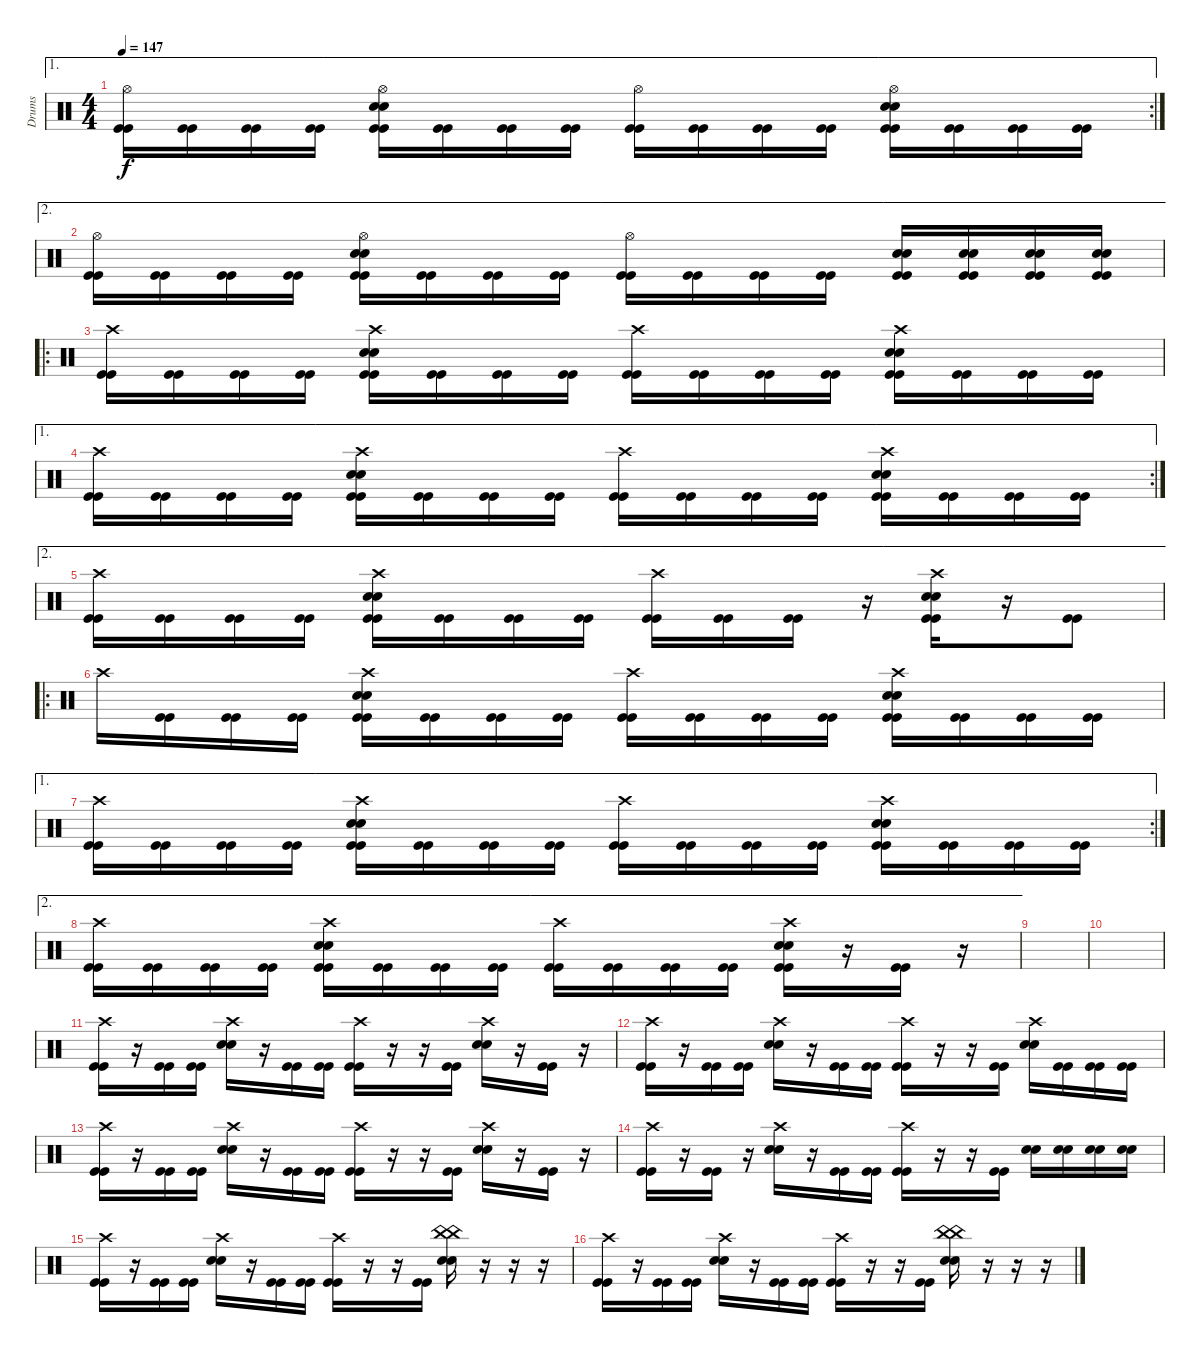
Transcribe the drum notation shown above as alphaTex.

\track ("Drums" "Drums") {instrument percussion}
\staff {score}
\articulation defaults
\ae 1
\rc 2
\ts (4 4)
\tempo 147
\clef neutral
\ks c
("Hi-Hat (open)" "Kick (hit)" "Kick (hit)").16{dy f} ("Kick (hit)" "Kick (hit)").16 ("Kick (hit)" "Kick (hit)").16 ("Kick (hit)" "Kick (hit)").16 ("Hi-Hat (open)" "Snare (hit) 2" "Snare (hit) 2" "Kick (hit)" "Kick (hit)").16 ("Kick (hit)" "Kick (hit)").16 ("Kick (hit)" "Kick (hit)").16 ("Kick (hit)" "Kick (hit)").16 ("Hi-Hat (open)" "Kick (hit)" "Kick (hit)").16 ("Kick (hit)" "Kick (hit)").16 ("Kick (hit)" "Kick (hit)").16 ("Kick (hit)" "Kick (hit)").16 ("Hi-Hat (open)" "Snare (hit) 2" "Snare (hit) 2" "Kick (hit)" "Kick (hit)").16 ("Kick (hit)" "Kick (hit)").16 ("Kick (hit)" "Kick (hit)").16 ("Kick (hit)" "Kick (hit)").16 |
\ae 2
("Hi-Hat (open)" "Kick (hit)" "Kick (hit)").16 ("Kick (hit)" "Kick (hit)").16 ("Kick (hit)" "Kick (hit)").16 ("Kick (hit)" "Kick (hit)").16 ("Hi-Hat (open)" "Snare (hit) 2" "Snare (hit) 2" "Kick (hit)" "Kick (hit)").16 ("Kick (hit)" "Kick (hit)").16 ("Kick (hit)" "Kick (hit)").16 ("Kick (hit)" "Kick (hit)").16 ("Hi-Hat (open)" "Kick (hit)" "Kick (hit)").16 ("Kick (hit)" "Kick (hit)").16 ("Kick (hit)" "Kick (hit)").16 ("Kick (hit)" "Kick (hit)").16 ("Snare (hit) 2" "Snare (hit) 2" "Kick (hit)" "Kick (hit)").16 ("Snare (hit) 2" "Snare (hit) 2" "Kick (hit)" "Kick (hit)").16 ("Snare (hit) 2" "Snare (hit) 2" "Kick (hit)" "Kick (hit)").16 ("Snare (hit) 2" "Snare (hit) 2" "Kick (hit)" "Kick (hit)").16 |
\ro
("Crash high (hit)" "Kick (hit)" "Kick (hit)").16 ("Kick (hit)" "Kick (hit)").16 ("Kick (hit)" "Kick (hit)").16 ("Kick (hit)" "Kick (hit)").16 ("Crash high (hit)" "Snare (hit) 2" "Snare (hit) 2" "Kick (hit)" "Kick (hit)").16 ("Kick (hit)" "Kick (hit)").16 ("Kick (hit)" "Kick (hit)").16 ("Kick (hit)" "Kick (hit)").16 ("Crash high (hit)" "Kick (hit)" "Kick (hit)").16 ("Kick (hit)" "Kick (hit)").16 ("Kick (hit)" "Kick (hit)").16 ("Kick (hit)" "Kick (hit)").16 ("Crash high (hit)" "Snare (hit) 2" "Snare (hit) 2" "Kick (hit)" "Kick (hit)").16 ("Kick (hit)" "Kick (hit)").16 ("Kick (hit)" "Kick (hit)").16 ("Kick (hit)" "Kick (hit)").16 |
\ae 1
\rc 2
("Crash high (hit)" "Kick (hit)" "Kick (hit)").16 ("Kick (hit)" "Kick (hit)").16 ("Kick (hit)" "Kick (hit)").16 ("Kick (hit)" "Kick (hit)").16 ("Crash high (hit)" "Snare (hit) 2" "Snare (hit) 2" "Kick (hit)" "Kick (hit)").16 ("Kick (hit)" "Kick (hit)").16 ("Kick (hit)" "Kick (hit)").16 ("Kick (hit)" "Kick (hit)").16 ("Crash high (hit)" "Kick (hit)" "Kick (hit)").16 ("Kick (hit)" "Kick (hit)").16 ("Kick (hit)" "Kick (hit)").16 ("Kick (hit)" "Kick (hit)").16 ("Crash high (hit)" "Snare (hit) 2" "Snare (hit) 2" "Kick (hit)" "Kick (hit)").16 ("Kick (hit)" "Kick (hit)").16 ("Kick (hit)" "Kick (hit)").16 ("Kick (hit)" "Kick (hit)").16 |
\ae 2
("Crash high (hit)" "Kick (hit)" "Kick (hit)").16 ("Kick (hit)" "Kick (hit)").16 ("Kick (hit)" "Kick (hit)").16 ("Kick (hit)" "Kick (hit)").16 ("Crash high (hit)" "Snare (hit) 2" "Snare (hit) 2" "Kick (hit)" "Kick (hit)").16 ("Kick (hit)" "Kick (hit)").16 ("Kick (hit)" "Kick (hit)").16 ("Kick (hit)" "Kick (hit)").16 ("Crash high (hit)" "Kick (hit)" "Kick (hit)").16 ("Kick (hit)" "Kick (hit)").16 ("Kick (hit)" "Kick (hit)").16 r.16 ("Crash high (hit)" "Snare (hit) 2" "Snare (hit) 2" "Kick (hit)" "Kick (hit)").16 r.16 ("Kick (hit)" "Kick (hit)").8 |
\ro "Crash high (hit)".16
("Kick (hit)" "Kick (hit)").16 ("Kick (hit)" "Kick (hit)").16 ("Kick (hit)" "Kick (hit)").16 ("Crash high (hit)" "Snare (hit) 2" "Snare (hit) 2" "Kick (hit)" "Kick (hit)").16 ("Kick (hit)" "Kick (hit)").16 ("Kick (hit)" "Kick (hit)").16 ("Kick (hit)" "Kick (hit)").16 ("Crash high (hit)" "Kick (hit)" "Kick (hit)").16 ("Kick (hit)" "Kick (hit)").16 ("Kick (hit)" "Kick (hit)").16 ("Kick (hit)" "Kick (hit)").16 ("Crash high (hit)" "Snare (hit) 2" "Snare (hit) 2" "Kick (hit)" "Kick (hit)").16 ("Kick (hit)" "Kick (hit)").16 ("Kick (hit)" "Kick (hit)").16 ("Kick (hit)" "Kick (hit)").16 |
\ae 1
\rc 2
("Crash high (hit)" "Kick (hit)" "Kick (hit)").16 ("Kick (hit)" "Kick (hit)").16 ("Kick (hit)" "Kick (hit)").16 ("Kick (hit)" "Kick (hit)").16 ("Crash high (hit)" "Snare (hit) 2" "Snare (hit) 2" "Kick (hit)" "Kick (hit)").16 ("Kick (hit)" "Kick (hit)").16 ("Kick (hit)" "Kick (hit)").16 ("Kick (hit)" "Kick (hit)").16 ("Crash high (hit)" "Kick (hit)" "Kick (hit)").16 ("Kick (hit)" "Kick (hit)").16 ("Kick (hit)" "Kick (hit)").16 ("Kick (hit)" "Kick (hit)").16 ("Crash high (hit)" "Snare (hit) 2" "Snare (hit) 2" "Kick (hit)" "Kick (hit)").16 ("Kick (hit)" "Kick (hit)").16 ("Kick (hit)" "Kick (hit)").16 ("Kick (hit)" "Kick (hit)").16 |
\ae 2
("Crash high (hit)" "Kick (hit)" "Kick (hit)").16 ("Kick (hit)" "Kick (hit)").16 ("Kick (hit)" "Kick (hit)").16 ("Kick (hit)" "Kick (hit)").16 ("Crash high (hit)" "Snare (hit) 2" "Snare (hit) 2" "Kick (hit)" "Kick (hit)").16 ("Kick (hit)" "Kick (hit)").16 ("Kick (hit)" "Kick (hit)").16 ("Kick (hit)" "Kick (hit)").16 ("Crash high (hit)" "Kick (hit)" "Kick (hit)").16 ("Kick (hit)" "Kick (hit)").16 ("Kick (hit)" "Kick (hit)").16 ("Kick (hit)" "Kick (hit)").16 ("Crash high (hit)" "Snare (hit) 2" "Snare (hit) 2" "Kick (hit)" "Kick (hit)").16 r.16 ("Kick (hit)" "Kick (hit)").16 r.16 |
|
|
("Crash high (hit)" "Kick (hit)" "Kick (hit)").16 r.16 ("Kick (hit)" "Kick (hit)").16 ("Kick (hit)" "Kick (hit)").16 ("Crash high (hit)" "Snare (hit) 2" "Snare (hit) 2").16 r.16 ("Kick (hit)" "Kick (hit)").16 ("Kick (hit)" "Kick (hit)").16 ("Crash high (hit)" "Kick (hit)" "Kick (hit)").16 r.16 r.16 ("Kick (hit)" "Kick (hit)").16 ("Crash high (hit)" "Snare (hit) 2" "Snare (hit) 2").16 r.16 ("Kick (hit)" "Kick (hit)").16 r.16 |
("Crash high (hit)" "Kick (hit)" "Kick (hit)").16 r.16 ("Kick (hit)" "Kick (hit)").16 ("Kick (hit)" "Kick (hit)").16 ("Crash high (hit)" "Snare (hit) 2" "Snare (hit) 2").16 r.16 ("Kick (hit)" "Kick (hit)").16 ("Kick (hit)" "Kick (hit)").16 ("Crash high (hit)" "Kick (hit)" "Kick (hit)").16 r.16 r.16 ("Kick (hit)" "Kick (hit)").16 ("Crash high (hit)" "Snare (hit) 2" "Snare (hit) 2").16 ("Kick (hit)" "Kick (hit)").16 ("Kick (hit)" "Kick (hit)").16 ("Kick (hit)" "Kick (hit)").16 |
("Crash high (hit)" "Kick (hit)" "Kick (hit)").16 r.16 ("Kick (hit)" "Kick (hit)").16 ("Kick (hit)" "Kick (hit)").16 ("Crash high (hit)" "Snare (hit) 2" "Snare (hit) 2").16 r.16 ("Kick (hit)" "Kick (hit)").16 ("Kick (hit)" "Kick (hit)").16 ("Crash high (hit)" "Kick (hit)" "Kick (hit)").16 r.16 r.16 ("Kick (hit)" "Kick (hit)").16 ("Crash high (hit)" "Snare (hit) 2" "Snare (hit) 2").16 r.16 ("Kick (hit)" "Kick (hit)").16 r.16 |
("Crash high (hit)" "Kick (hit)" "Kick (hit)").16 r.16 ("Kick (hit)" "Kick (hit)").16 r.16 ("Crash high (hit)" "Snare (hit) 2" "Snare (hit) 2").16 r.16 ("Kick (hit)" "Kick (hit)").16 ("Kick (hit)" "Kick (hit)").16 ("Crash high (hit)" "Kick (hit)" "Kick (hit)").16 r.16 r.16 ("Kick (hit)" "Kick (hit)").16 ("Snare (hit) 2" "Snare (hit) 2").16 ("Snare (hit) 2" "Snare (hit) 2").16 ("Snare (hit) 2" "Snare (hit) 2").16 ("Snare (hit) 2" "Snare (hit) 2").16 |
("Crash high (hit)" "Kick (hit)" "Kick (hit)").16 r.16 ("Kick (hit)" "Kick (hit)").16 ("Kick (hit)" "Kick (hit)").16 ("Crash high (hit)" "Snare (hit) 2" "Snare (hit) 2").16 r.16 ("Kick (hit)" "Kick (hit)").16 ("Kick (hit)" "Kick (hit)").16 ("Crash high (hit)" "Kick (hit)" "Kick (hit)").16 r.16 r.16 ("Kick (hit)" "Kick (hit)").16 ("China (hit)" "China (hit)" "Snare (hit) 2" "Snare (hit) 2").16 r.16 r.16 r.16 |
("Crash high (hit)" "Kick (hit)" "Kick (hit)").16 r.16 ("Kick (hit)" "Kick (hit)").16 ("Kick (hit)" "Kick (hit)").16 ("Crash high (hit)" "Snare (hit) 2" "Snare (hit) 2").16 r.16 ("Kick (hit)" "Kick (hit)").16 ("Kick (hit)" "Kick (hit)").16 ("Crash high (hit)" "Kick (hit)" "Kick (hit)").16 r.16 r.16 ("Kick (hit)" "Kick (hit)").16 ("China (hit)" "China (hit)" "Snare (hit) 2" "Snare (hit) 2").16 r.16 r.16 r.16
